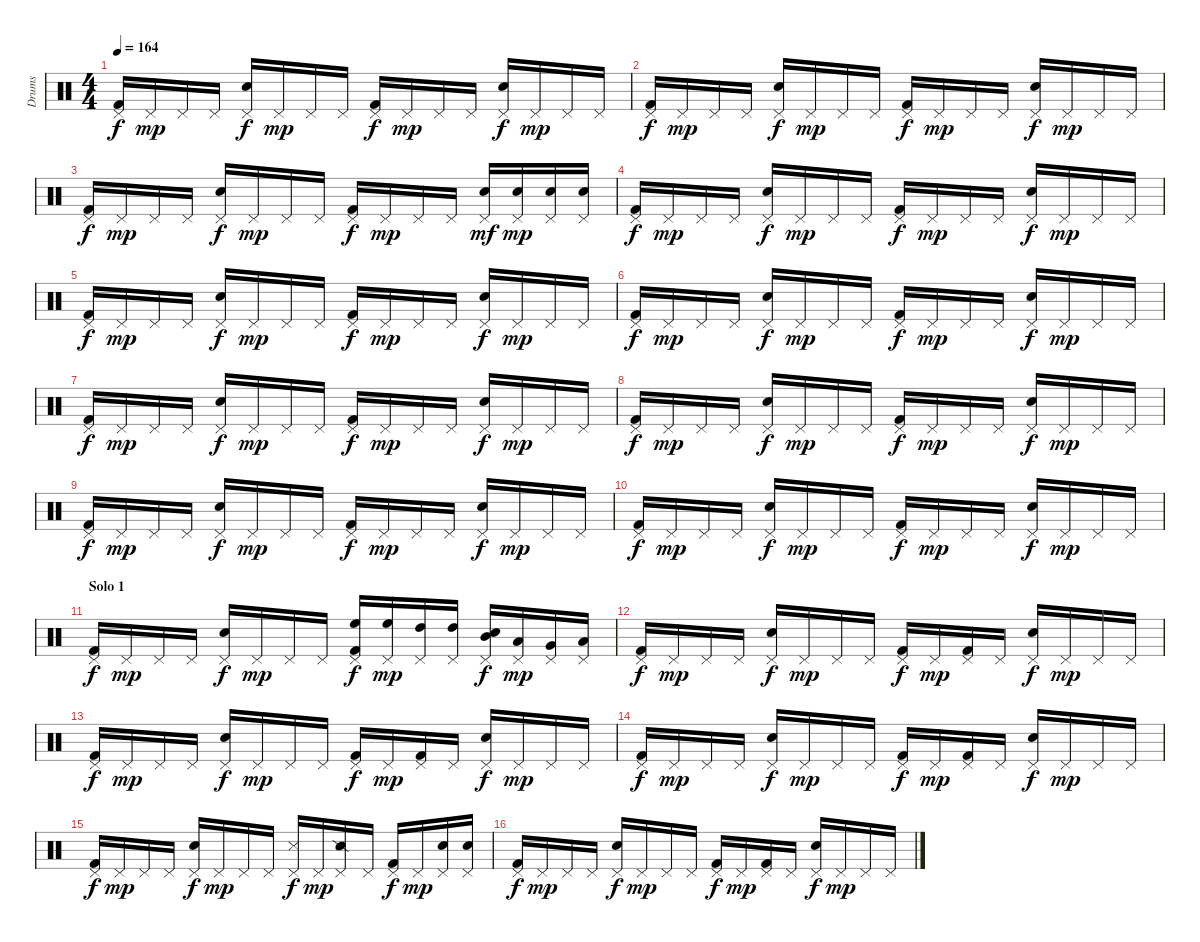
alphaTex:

\track ("Drums" "Drums") {instrument percussion}
\staff {score}
\articulation defaults
\ts (4 4)
\tempo 164
\clef neutral
\ks c
("Pedal Hi-Hat (hit)" "Kick (hit) 2").16{dy f} "Pedal Hi-Hat (hit)".16{dy mp} "Pedal Hi-Hat (hit)".16 "Pedal Hi-Hat (hit)".16 ("Pedal Hi-Hat (hit)" "Snare (hit) 2").16{dy f} "Pedal Hi-Hat (hit)".16{dy mp} "Pedal Hi-Hat (hit)".16 "Pedal Hi-Hat (hit)".16 ("Pedal Hi-Hat (hit)" "Kick (hit) 2").16{dy f} "Pedal Hi-Hat (hit)".16{dy mp} "Pedal Hi-Hat (hit)".16 "Pedal Hi-Hat (hit)".16 ("Pedal Hi-Hat (hit)" "Snare (hit) 2").16{dy f} "Pedal Hi-Hat (hit)".16{dy mp} "Pedal Hi-Hat (hit)".16 "Pedal Hi-Hat (hit)".16 |
("Pedal Hi-Hat (hit)" "Kick (hit) 2").16{dy f} "Pedal Hi-Hat (hit)".16{dy mp} "Pedal Hi-Hat (hit)".16 "Pedal Hi-Hat (hit)".16 ("Pedal Hi-Hat (hit)" "Snare (hit) 2").16{dy f} "Pedal Hi-Hat (hit)".16{dy mp} "Pedal Hi-Hat (hit)".16 "Pedal Hi-Hat (hit)".16 ("Pedal Hi-Hat (hit)" "Kick (hit) 2").16{dy f} "Pedal Hi-Hat (hit)".16{dy mp} "Pedal Hi-Hat (hit)".16 "Pedal Hi-Hat (hit)".16 ("Pedal Hi-Hat (hit)" "Snare (hit) 2").16{dy f} "Pedal Hi-Hat (hit)".16{dy mp} "Pedal Hi-Hat (hit)".16 "Pedal Hi-Hat (hit)".16 |
("Pedal Hi-Hat (hit)" "Kick (hit) 2").16{dy f} "Pedal Hi-Hat (hit)".16{dy mp} "Pedal Hi-Hat (hit)".16 "Pedal Hi-Hat (hit)".16 ("Pedal Hi-Hat (hit)" "Snare (hit) 2").16{dy f} "Pedal Hi-Hat (hit)".16{dy mp} "Pedal Hi-Hat (hit)".16 "Pedal Hi-Hat (hit)".16 ("Pedal Hi-Hat (hit)" "Kick (hit) 2").16{dy f} "Pedal Hi-Hat (hit)".16{dy mp} "Pedal Hi-Hat (hit)".16 "Pedal Hi-Hat (hit)".16 ("Pedal Hi-Hat (hit)" "Snare (hit) 2").16{dy mf} ("Pedal Hi-Hat (hit)" "Snare (hit) 2").16{dy mp} ("Pedal Hi-Hat (hit)" "Snare (hit) 2").16 ("Pedal Hi-Hat (hit)" "Snare (hit) 2").16 |
("Pedal Hi-Hat (hit)" "Kick (hit) 2").16{dy f} "Pedal Hi-Hat (hit)".16{dy mp} "Pedal Hi-Hat (hit)".16 "Pedal Hi-Hat (hit)".16 ("Pedal Hi-Hat (hit)" "Snare (hit) 2").16{dy f} "Pedal Hi-Hat (hit)".16{dy mp} "Pedal Hi-Hat (hit)".16 "Pedal Hi-Hat (hit)".16 ("Pedal Hi-Hat (hit)" "Kick (hit) 2").16{dy f} "Pedal Hi-Hat (hit)".16{dy mp} "Pedal Hi-Hat (hit)".16 "Pedal Hi-Hat (hit)".16 ("Pedal Hi-Hat (hit)" "Snare (hit) 2").16{dy f} "Pedal Hi-Hat (hit)".16{dy mp} "Pedal Hi-Hat (hit)".16 "Pedal Hi-Hat (hit)".16 |
("Pedal Hi-Hat (hit)" "Kick (hit) 2").16{dy f} "Pedal Hi-Hat (hit)".16{dy mp} "Pedal Hi-Hat (hit)".16 "Pedal Hi-Hat (hit)".16 ("Pedal Hi-Hat (hit)" "Snare (hit) 2").16{dy f} "Pedal Hi-Hat (hit)".16{dy mp} "Pedal Hi-Hat (hit)".16 "Pedal Hi-Hat (hit)".16 ("Pedal Hi-Hat (hit)" "Kick (hit) 2").16{dy f} "Pedal Hi-Hat (hit)".16{dy mp} "Pedal Hi-Hat (hit)".16 "Pedal Hi-Hat (hit)".16 ("Pedal Hi-Hat (hit)" "Snare (hit) 2").16{dy f} "Pedal Hi-Hat (hit)".16{dy mp} "Pedal Hi-Hat (hit)".16 "Pedal Hi-Hat (hit)".16 |
("Pedal Hi-Hat (hit)" "Kick (hit) 2").16{dy f} "Pedal Hi-Hat (hit)".16{dy mp} "Pedal Hi-Hat (hit)".16 "Pedal Hi-Hat (hit)".16 ("Pedal Hi-Hat (hit)" "Snare (hit) 2").16{dy f} "Pedal Hi-Hat (hit)".16{dy mp} "Pedal Hi-Hat (hit)".16 "Pedal Hi-Hat (hit)".16 ("Pedal Hi-Hat (hit)" "Kick (hit) 2").16{dy f} "Pedal Hi-Hat (hit)".16{dy mp} "Pedal Hi-Hat (hit)".16 "Pedal Hi-Hat (hit)".16 ("Pedal Hi-Hat (hit)" "Snare (hit) 2").16{dy f} "Pedal Hi-Hat (hit)".16{dy mp} "Pedal Hi-Hat (hit)".16 "Pedal Hi-Hat (hit)".16 |
("Pedal Hi-Hat (hit)" "Kick (hit) 2").16{dy f} "Pedal Hi-Hat (hit)".16{dy mp} "Pedal Hi-Hat (hit)".16 "Pedal Hi-Hat (hit)".16 ("Pedal Hi-Hat (hit)" "Snare (hit) 2").16{dy f} "Pedal Hi-Hat (hit)".16{dy mp} "Pedal Hi-Hat (hit)".16 "Pedal Hi-Hat (hit)".16 ("Pedal Hi-Hat (hit)" "Kick (hit) 2").16{dy f} "Pedal Hi-Hat (hit)".16{dy mp} "Pedal Hi-Hat (hit)".16 "Pedal Hi-Hat (hit)".16 ("Pedal Hi-Hat (hit)" "Snare (hit) 2").16{dy f} "Pedal Hi-Hat (hit)".16{dy mp} "Pedal Hi-Hat (hit)".16 "Pedal Hi-Hat (hit)".16 |
("Pedal Hi-Hat (hit)" "Kick (hit) 2").16{dy f} "Pedal Hi-Hat (hit)".16{dy mp} "Pedal Hi-Hat (hit)".16 "Pedal Hi-Hat (hit)".16 ("Pedal Hi-Hat (hit)" "Snare (hit) 2").16{dy f} "Pedal Hi-Hat (hit)".16{dy mp} "Pedal Hi-Hat (hit)".16 "Pedal Hi-Hat (hit)".16 ("Pedal Hi-Hat (hit)" "Kick (hit) 2").16{dy f} "Pedal Hi-Hat (hit)".16{dy mp} "Pedal Hi-Hat (hit)".16 "Pedal Hi-Hat (hit)".16 ("Pedal Hi-Hat (hit)" "Snare (hit) 2").16{dy f} "Pedal Hi-Hat (hit)".16{dy mp} "Pedal Hi-Hat (hit)".16 "Pedal Hi-Hat (hit)".16 |
("Pedal Hi-Hat (hit)" "Kick (hit) 2").16{dy f} "Pedal Hi-Hat (hit)".16{dy mp} "Pedal Hi-Hat (hit)".16 "Pedal Hi-Hat (hit)".16 ("Pedal Hi-Hat (hit)" "Snare (hit) 2").16{dy f} "Pedal Hi-Hat (hit)".16{dy mp} "Pedal Hi-Hat (hit)".16 "Pedal Hi-Hat (hit)".16 ("Pedal Hi-Hat (hit)" "Kick (hit) 2").16{dy f} "Pedal Hi-Hat (hit)".16{dy mp} "Pedal Hi-Hat (hit)".16 "Pedal Hi-Hat (hit)".16 ("Pedal Hi-Hat (hit)" "Snare (hit) 2").16{dy f} "Pedal Hi-Hat (hit)".16{dy mp} "Pedal Hi-Hat (hit)".16 "Pedal Hi-Hat (hit)".16 |
("Pedal Hi-Hat (hit)" "Kick (hit) 2").16{dy f} "Pedal Hi-Hat (hit)".16{dy mp} "Pedal Hi-Hat (hit)".16 "Pedal Hi-Hat (hit)".16 ("Pedal Hi-Hat (hit)" "Snare (hit) 2").16{dy f} "Pedal Hi-Hat (hit)".16{dy mp} "Pedal Hi-Hat (hit)".16 "Pedal Hi-Hat (hit)".16 ("Pedal Hi-Hat (hit)" "Kick (hit) 2").16{dy f} "Pedal Hi-Hat (hit)".16{dy mp} "Pedal Hi-Hat (hit)".16 "Pedal Hi-Hat (hit)".16 ("Pedal Hi-Hat (hit)" "Snare (hit) 2").16{dy f} "Pedal Hi-Hat (hit)".16{dy mp} "Pedal Hi-Hat (hit)".16 "Pedal Hi-Hat (hit)".16 |
\section ("" "Solo 1")
("Pedal Hi-Hat (hit)" "Kick (hit) 2").16{dy f} "Pedal Hi-Hat (hit)".16{dy mp} "Pedal Hi-Hat (hit)".16 "Pedal Hi-Hat (hit)".16 ("Pedal Hi-Hat (hit)" "Snare (hit) 2").16{dy f} "Pedal Hi-Hat (hit)".16{dy mp} "Pedal Hi-Hat (hit)".16 "Pedal Hi-Hat (hit)".16 ("Pedal Hi-Hat (hit)" "High Floor Tom (hit)" "Kick (hit) 2").16{dy f} ("Pedal Hi-Hat (hit)" "High Floor Tom (hit)").16{dy mp} ("Pedal Hi-Hat (hit)" "High Tom (hit)").16 ("Pedal Hi-Hat (hit)" "High Tom (hit)").16 ("Pedal Hi-Hat (hit)" "Mid Tom (hit)" "Snare (hit) 2").16{dy f} ("Pedal Hi-Hat (hit)" "Low Tom (hit)").16{dy mp} ("Pedal Hi-Hat (hit)" "Very Low Tom (hit)").16 ("Pedal Hi-Hat (hit)" "Low Floor Tom (hit)").16 |
("Pedal Hi-Hat (hit)" "Kick (hit) 2").16{dy f} "Pedal Hi-Hat (hit)".16{dy mp} "Pedal Hi-Hat (hit)".16 "Pedal Hi-Hat (hit)".16 ("Pedal Hi-Hat (hit)" "Snare (hit) 2").16{dy f} "Pedal Hi-Hat (hit)".16{dy mp} "Pedal Hi-Hat (hit)".16 "Pedal Hi-Hat (hit)".16 ("Pedal Hi-Hat (hit)" "Kick (hit) 2").16{dy f} "Pedal Hi-Hat (hit)".16{dy mp} ("Pedal Hi-Hat (hit)" "Kick (hit) 2").16 "Pedal Hi-Hat (hit)".16 ("Pedal Hi-Hat (hit)" "Snare (hit) 2").16{dy f} "Pedal Hi-Hat (hit)".16{dy mp} "Pedal Hi-Hat (hit)".16 "Pedal Hi-Hat (hit)".16 |
("Pedal Hi-Hat (hit)" "Kick (hit) 2").16{dy f} "Pedal Hi-Hat (hit)".16{dy mp} "Pedal Hi-Hat (hit)".16 "Pedal Hi-Hat (hit)".16 ("Pedal Hi-Hat (hit)" "Snare (hit) 2").16{dy f} "Pedal Hi-Hat (hit)".16{dy mp} "Pedal Hi-Hat (hit)".16 "Pedal Hi-Hat (hit)".16 ("Pedal Hi-Hat (hit)" "Kick (hit) 2").16{dy f} "Pedal Hi-Hat (hit)".16{dy mp} ("Pedal Hi-Hat (hit)" "Kick (hit) 2").16 "Pedal Hi-Hat (hit)".16 ("Pedal Hi-Hat (hit)" "Snare (hit) 2").16{dy f} "Pedal Hi-Hat (hit)".16{dy mp} "Pedal Hi-Hat (hit)".16 "Pedal Hi-Hat (hit)".16 |
("Pedal Hi-Hat (hit)" "Kick (hit) 2").16{dy f} "Pedal Hi-Hat (hit)".16{dy mp} "Pedal Hi-Hat (hit)".16 "Pedal Hi-Hat (hit)".16 ("Pedal Hi-Hat (hit)" "Snare (hit) 2").16{dy f} "Pedal Hi-Hat (hit)".16{dy mp} "Pedal Hi-Hat (hit)".16 "Pedal Hi-Hat (hit)".16 ("Pedal Hi-Hat (hit)" "Kick (hit) 2").16{dy f} "Pedal Hi-Hat (hit)".16{dy mp} ("Pedal Hi-Hat (hit)" "Kick (hit) 2").16 "Pedal Hi-Hat (hit)".16 ("Pedal Hi-Hat (hit)" "Snare (hit) 2").16{dy f} "Pedal Hi-Hat (hit)".16{dy mp} "Pedal Hi-Hat (hit)".16 "Pedal Hi-Hat (hit)".16 |
("Pedal Hi-Hat (hit)" "Kick (hit) 2").16{dy f} "Pedal Hi-Hat (hit)".16{dy mp} "Pedal Hi-Hat (hit)".16 "Pedal Hi-Hat (hit)".16 ("Pedal Hi-Hat (hit)" "Snare (hit) 2").16{dy f} "Pedal Hi-Hat (hit)".16{dy mp} "Pedal Hi-Hat (hit)".16 "Pedal Hi-Hat (hit)".16 ("Pedal Hi-Hat (hit)" "Metronome (hit)").16{dy f} "Pedal Hi-Hat (hit)".16{dy mp} ("Pedal Hi-Hat (hit)" "Snare (side stick) 2").16 "Pedal Hi-Hat (hit)".16 ("Pedal Hi-Hat (hit)" "Kick (hit) 2").16{dy f} "Pedal Hi-Hat (hit)".16{dy mp} ("Pedal Hi-Hat (hit)" "Snare (hit) 2").16 ("Pedal Hi-Hat (hit)" "Snare (hit) 2").16 |
("Pedal Hi-Hat (hit)" "Kick (hit) 2").16{dy f} "Pedal Hi-Hat (hit)".16{dy mp} "Pedal Hi-Hat (hit)".16 "Pedal Hi-Hat (hit)".16 ("Pedal Hi-Hat (hit)" "Snare (hit) 2").16{dy f} "Pedal Hi-Hat (hit)".16{dy mp} "Pedal Hi-Hat (hit)".16 "Pedal Hi-Hat (hit)".16 ("Pedal Hi-Hat (hit)" "Kick (hit) 2").16{dy f} "Pedal Hi-Hat (hit)".16{dy mp} ("Pedal Hi-Hat (hit)" "Kick (hit) 2").16 "Pedal Hi-Hat (hit)".16 ("Pedal Hi-Hat (hit)" "Snare (hit) 2").16{dy f} "Pedal Hi-Hat (hit)".16{dy mp} "Pedal Hi-Hat (hit)".16 "Pedal Hi-Hat (hit)".16
